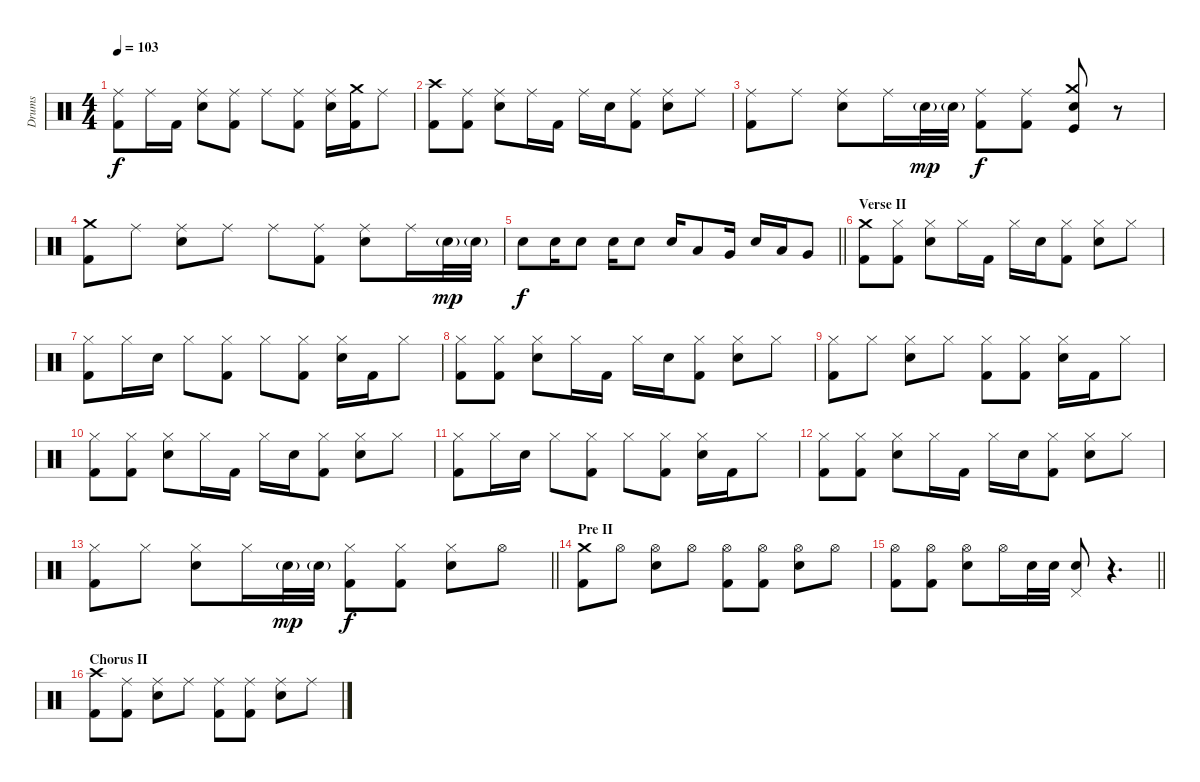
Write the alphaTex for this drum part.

\track ("Drums" "Drums") {instrument percussion}
\staff {score}
\articulation defaults
\ts (4 4)
\tempo 103
\clef neutral
\ks c
("Ride (middle)" "Kick (hit) 2").8{dy f} "Ride (middle)".16 "Kick (hit) 2".16 ("Ride (middle)" "Electric Snare (hit)").8 ("Ride (middle)" "Kick (hit) 2").8 "Ride (middle)".8 ("Ride (middle)" "Kick (hit) 2").8 ("Ride (middle)" "Electric Snare (hit)").16 ("Crash medium (hit)" "Kick (hit) 2").16 "Ride (middle)".8 |
("Crash high (hit)" "Kick (hit) 2").8 ("Ride (middle)" "Kick (hit) 2").8 ("Ride (middle)" "Electric Snare (hit)").8 "Ride (middle)".16 "Kick (hit) 2".16 "Ride (middle)".16 "Electric Snare (hit)".16 ("Ride (middle)" "Kick (hit) 2").8 ("Ride (middle)" "Electric Snare (hit)").8 "Ride (middle)".8 |
("Ride (middle)" "Kick (hit) 2").8 "Ride (middle)".8 ("Ride (middle)" "Electric Snare (hit)").8 "Ride (middle)".16 "Electric Snare (hit)"{g}.32{dy mp} "Electric Snare (hit)"{g}.32 ("Ride (middle)" "Kick (hit) 2").8{dy f} ("Ride (middle)" "Kick (hit) 2").8 ("Crash medium (hit)" "Electric Snare (hit)" "Kick (hit)").8 r.8 |
("Crash medium (hit)" "Kick (hit) 2").8 "Ride (middle)".8 ("Ride (middle)" "Electric Snare (hit)").8 "Ride (middle)".8 "Ride (middle)".8 ("Ride (middle)" "Kick (hit) 2").8 ("Ride (middle)" "Electric Snare (hit)").8 "Ride (middle)".16 "Electric Snare (hit)"{g}.32{dy mp} "Electric Snare (hit)"{g}.32 |
\barLineRight lightlight "Electric Snare (hit)".8{dy f} "Electric Snare (hit)".16 "Electric Snare (hit)".8 "Electric Snare (hit)".16 "Electric Snare (hit)".8 "Electric Snare (hit)".16 "Low Tom (hit)".8 "Very Low Tom (hit)".16 "Electric Snare (hit)".16 "Low Tom (hit)".16 "Very Low Tom (hit)".8
|
\section ("" "Verse II")
("Crash medium (hit)" "Kick (hit) 2").8 ("Hi-Hat (closed)" "Kick (hit) 2").8 ("Hi-Hat (closed)" "Electric Snare (hit)").8 "Hi-Hat (closed)".16 "Kick (hit) 2".16 "Hi-Hat (closed)".16 "Electric Snare (hit)".16 ("Hi-Hat (closed)" "Kick (hit) 2").8 ("Hi-Hat (closed)" "Electric Snare (hit)").8 "Hi-Hat (closed)".8 |
("Hi-Hat (closed)" "Kick (hit) 2").8 "Hi-Hat (closed)".16 "Electric Snare (hit)".16 "Hi-Hat (closed)".8 ("Hi-Hat (closed)" "Kick (hit) 2").8 "Hi-Hat (closed)".8 ("Hi-Hat (closed)" "Kick (hit) 2").8 ("Hi-Hat (closed)" "Electric Snare (hit)").16 "Kick (hit) 2".16 "Hi-Hat (closed)".8 |
("Hi-Hat (closed)" "Kick (hit) 2").8 ("Hi-Hat (closed)" "Kick (hit) 2").8 ("Hi-Hat (closed)" "Electric Snare (hit)").8 "Hi-Hat (closed)".16 "Kick (hit) 2".16 "Hi-Hat (closed)".16 "Electric Snare (hit)".16 ("Hi-Hat (closed)" "Kick (hit) 2").8 ("Hi-Hat (closed)" "Electric Snare (hit)").8 "Hi-Hat (closed)".8 |
("Hi-Hat (closed)" "Kick (hit) 2").8 "Hi-Hat (closed)".8 ("Hi-Hat (closed)" "Electric Snare (hit)").8 "Hi-Hat (closed)".8 ("Hi-Hat (closed)" "Kick (hit) 2").8 ("Hi-Hat (closed)" "Kick (hit) 2").8 ("Hi-Hat (closed)" "Electric Snare (hit)").16 "Kick (hit) 2".16 "Hi-Hat (closed)".8 |
("Hi-Hat (closed)" "Kick (hit) 2").8 ("Hi-Hat (closed)" "Kick (hit) 2").8 ("Hi-Hat (closed)" "Electric Snare (hit)").8 "Hi-Hat (closed)".16 "Kick (hit) 2".16 "Hi-Hat (closed)".16 "Electric Snare (hit)".16 ("Hi-Hat (closed)" "Kick (hit) 2").8 ("Hi-Hat (closed)" "Electric Snare (hit)").8 "Hi-Hat (closed)".8 |
("Hi-Hat (closed)" "Kick (hit) 2").8 "Hi-Hat (closed)".16 "Electric Snare (hit)".16 "Hi-Hat (closed)".8 ("Hi-Hat (closed)" "Kick (hit) 2").8 "Hi-Hat (closed)".8 ("Hi-Hat (closed)" "Kick (hit) 2").8 ("Hi-Hat (closed)" "Electric Snare (hit)").16 "Kick (hit) 2".16 "Hi-Hat (closed)".8 |
("Hi-Hat (closed)" "Kick (hit) 2").8 ("Hi-Hat (closed)" "Kick (hit) 2").8 ("Hi-Hat (closed)" "Electric Snare (hit)").8 "Hi-Hat (closed)".16 "Kick (hit) 2".16 "Hi-Hat (closed)".16 "Electric Snare (hit)".16 ("Hi-Hat (closed)" "Kick (hit) 2").8 ("Hi-Hat (closed)" "Electric Snare (hit)").8 "Hi-Hat (closed)".8 |
\barLineRight lightlight
("Hi-Hat (closed)" "Kick (hit) 2").8 "Hi-Hat (closed)".8 ("Hi-Hat (closed)" "Electric Snare (hit)").8 "Hi-Hat (closed)".16 "Electric Snare (hit)"{g}.32{dy mp} "Electric Snare (hit)"{g}.32 ("Hi-Hat (closed)" "Kick (hit) 2").8{dy f} ("Hi-Hat (closed)" "Kick (hit) 2").8 ("Hi-Hat (closed)" "Electric Snare (hit)").8 "Hi-Hat (open)".8 |
\section ("" "Pre II")
("Crash medium (hit)" "Kick (hit) 2").8 "Hi-Hat (open)".8 ("Hi-Hat (open)" "Electric Snare (hit)").8 "Hi-Hat (open)".8 ("Hi-Hat (open)" "Kick (hit) 2").8 ("Hi-Hat (open)" "Kick (hit) 2").8 ("Hi-Hat (open)" "Electric Snare (hit)").8 "Hi-Hat (open)".8 |
\barLineRight lightlight
("Hi-Hat (open)" "Kick (hit) 2").8 ("Hi-Hat (open)" "Kick (hit) 2").8 ("Hi-Hat (open)" "Electric Snare (hit)").8 "Hi-Hat (open)".16 "Electric Snare (hit)".32 "Electric Snare (hit)".32 ("Pedal Hi-Hat (hit)" "Electric Snare (hit)").8 r.4{d} |
\section ("" "Chorus II")
("Crash high (hit)" "Kick (hit) 2").8 ("Ride (middle)" "Kick (hit) 2").8 ("Ride (middle)" "Electric Snare (hit)").8 "Ride (middle)".8 ("Ride (middle)" "Kick (hit) 2").8 ("Ride (middle)" "Kick (hit) 2").8 ("Ride (middle)" "Electric Snare (hit)").8 "Ride (middle)".8
